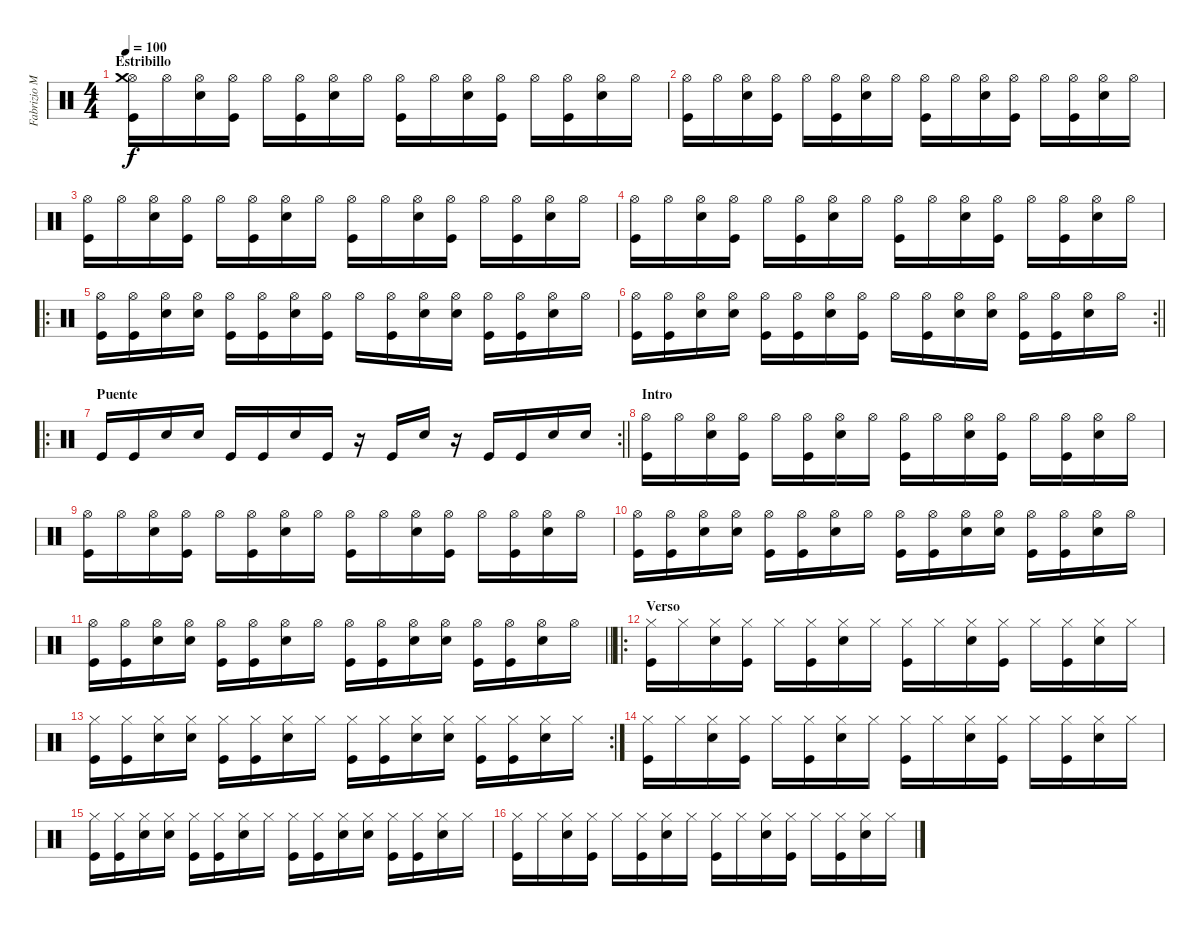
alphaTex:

\track ("Fabrizio Moretti" "Fabrizio M") {instrument percussion}
\staff {score}
\articulation defaults
\ts (4 4)
\section ("" "Estribillo")
\tempo 100
\clef neutral
\ks c
("Hi-Hat (open)" "Crash medium (hit)" "Kick (hit)").16{dy f} "Hi-Hat (open)".16 ("Hi-Hat (open)" "Snare (hit) 2").16 ("Hi-Hat (open)" "Kick (hit)").16 "Hi-Hat (open)".16 ("Hi-Hat (open)" "Kick (hit)").16 ("Hi-Hat (open)" "Snare (hit) 2").16 "Hi-Hat (open)".16 ("Hi-Hat (open)" "Kick (hit)").16 "Hi-Hat (open)".16 ("Hi-Hat (open)" "Snare (hit) 2").16 ("Hi-Hat (open)" "Kick (hit)").16 "Hi-Hat (open)".16 ("Hi-Hat (open)" "Kick (hit)").16 ("Hi-Hat (open)" "Snare (hit) 2").16 "Hi-Hat (open)".16 |
("Hi-Hat (open)" "Kick (hit)").16 "Hi-Hat (open)".16 ("Hi-Hat (open)" "Snare (hit) 2").16 ("Hi-Hat (open)" "Kick (hit)").16 "Hi-Hat (open)".16 ("Hi-Hat (open)" "Kick (hit)").16 ("Hi-Hat (open)" "Snare (hit) 2").16 "Hi-Hat (open)".16 ("Hi-Hat (open)" "Kick (hit)").16 "Hi-Hat (open)".16 ("Hi-Hat (open)" "Snare (hit) 2").16 ("Hi-Hat (open)" "Kick (hit)").16 "Hi-Hat (open)".16 ("Hi-Hat (open)" "Kick (hit)").16 ("Hi-Hat (open)" "Snare (hit) 2").16 "Hi-Hat (open)".16 |
("Hi-Hat (open)" "Kick (hit)").16 "Hi-Hat (open)".16 ("Hi-Hat (open)" "Snare (hit) 2").16 ("Hi-Hat (open)" "Kick (hit)").16 "Hi-Hat (open)".16 ("Hi-Hat (open)" "Kick (hit)").16 ("Hi-Hat (open)" "Snare (hit) 2").16 "Hi-Hat (open)".16 ("Hi-Hat (open)" "Kick (hit)").16 "Hi-Hat (open)".16 ("Hi-Hat (open)" "Snare (hit) 2").16 ("Hi-Hat (open)" "Kick (hit)").16 "Hi-Hat (open)".16 ("Hi-Hat (open)" "Kick (hit)").16 ("Hi-Hat (open)" "Snare (hit) 2").16 "Hi-Hat (open)".16 |
("Hi-Hat (open)" "Kick (hit)").16 "Hi-Hat (open)".16 ("Hi-Hat (open)" "Snare (hit) 2").16 ("Hi-Hat (open)" "Kick (hit)").16 "Hi-Hat (open)".16 ("Hi-Hat (open)" "Kick (hit)").16 ("Hi-Hat (open)" "Snare (hit) 2").16 "Hi-Hat (open)".16 ("Hi-Hat (open)" "Kick (hit)").16 "Hi-Hat (open)".16 ("Hi-Hat (open)" "Snare (hit) 2").16 ("Hi-Hat (open)" "Kick (hit)").16 "Hi-Hat (open)".16 ("Hi-Hat (open)" "Kick (hit)").16 ("Hi-Hat (open)" "Snare (hit) 2").16 "Hi-Hat (open)".16 |
\ro
("Hi-Hat (open)" "Kick (hit)").16 ("Hi-Hat (open)" "Kick (hit)").16 ("Hi-Hat (open)" "Snare (hit) 2").16 ("Hi-Hat (open)" "Snare (hit) 2").16 ("Hi-Hat (open)" "Kick (hit)").16 ("Hi-Hat (open)" "Kick (hit)").16 ("Hi-Hat (open)" "Snare (hit) 2").16 ("Hi-Hat (open)" "Kick (hit)").16 "Hi-Hat (open)".16 ("Hi-Hat (open)" "Kick (hit)").16 ("Hi-Hat (open)" "Snare (hit) 2").16 ("Hi-Hat (open)" "Snare (hit) 2").16 ("Hi-Hat (open)" "Kick (hit)").16 ("Hi-Hat (open)" "Kick (hit)").16 ("Hi-Hat (open)" "Snare (hit) 2").16 "Hi-Hat (open)".16 |
\rc 2
\barLineRight lightlight
("Hi-Hat (open)" "Kick (hit)").16 ("Hi-Hat (open)" "Kick (hit)").16 ("Hi-Hat (open)" "Snare (hit) 2").16 ("Hi-Hat (open)" "Snare (hit) 2").16 ("Hi-Hat (open)" "Kick (hit)").16 ("Hi-Hat (open)" "Kick (hit)").16 ("Hi-Hat (open)" "Snare (hit) 2").16 ("Hi-Hat (open)" "Kick (hit)").16 "Hi-Hat (open)".16 ("Hi-Hat (open)" "Kick (hit)").16 ("Hi-Hat (open)" "Snare (hit) 2").16 ("Hi-Hat (open)" "Snare (hit) 2").16 ("Hi-Hat (open)" "Kick (hit)").16 ("Hi-Hat (open)" "Kick (hit)").16 ("Hi-Hat (open)" "Snare (hit) 2").16 "Hi-Hat (open)".16 |
\ro
\rc 2
\section ("" "Puente")
\barLineRight lightlight "Kick (hit)".16 "Kick (hit)".16 "Snare (hit) 2".16 "Snare (hit) 2".16 "Kick (hit)".16 "Kick (hit)".16 "Snare (hit) 2".16 "Kick (hit)".16
r.16 "Kick (hit)".16 "Snare (hit) 2".16 r.16 "Kick (hit)".16 "Kick (hit)".16 "Snare (hit) 2".16 "Snare (hit) 2".16 |
\section ("" "Intro")
("Hi-Hat (open)" "Kick (hit)").16 "Hi-Hat (open)".16 ("Hi-Hat (open)" "Snare (hit) 2").16 ("Hi-Hat (open)" "Kick (hit)").16 "Hi-Hat (open)".16 ("Hi-Hat (open)" "Kick (hit)").16 ("Hi-Hat (open)" "Snare (hit) 2").16 "Hi-Hat (open)".16 ("Hi-Hat (open)" "Kick (hit)").16 "Hi-Hat (open)".16 ("Hi-Hat (open)" "Snare (hit) 2").16 ("Hi-Hat (open)" "Kick (hit)").16 "Hi-Hat (open)".16 ("Hi-Hat (open)" "Kick (hit)").16 ("Hi-Hat (open)" "Snare (hit) 2").16 "Hi-Hat (open)".16 |
("Hi-Hat (open)" "Kick (hit)").16 "Hi-Hat (open)".16 ("Hi-Hat (open)" "Snare (hit) 2").16 ("Hi-Hat (open)" "Kick (hit)").16 "Hi-Hat (open)".16 ("Hi-Hat (open)" "Kick (hit)").16 ("Hi-Hat (open)" "Snare (hit) 2").16 "Hi-Hat (open)".16 ("Hi-Hat (open)" "Kick (hit)").16 "Hi-Hat (open)".16 ("Hi-Hat (open)" "Snare (hit) 2").16 ("Hi-Hat (open)" "Kick (hit)").16 "Hi-Hat (open)".16 ("Hi-Hat (open)" "Kick (hit)").16 ("Hi-Hat (open)" "Snare (hit) 2").16 "Hi-Hat (open)".16 |
("Hi-Hat (open)" "Kick (hit)").16 ("Hi-Hat (open)" "Kick (hit)").16 ("Hi-Hat (open)" "Snare (hit) 2").16 ("Hi-Hat (open)" "Snare (hit) 2").16 ("Hi-Hat (open)" "Kick (hit)").16 ("Hi-Hat (open)" "Kick (hit)").16 ("Hi-Hat (open)" "Snare (hit) 2").16 "Hi-Hat (open)".16 ("Hi-Hat (open)" "Kick (hit)").16 ("Hi-Hat (open)" "Kick (hit)").16 ("Hi-Hat (open)" "Snare (hit) 2").16 ("Hi-Hat (open)" "Snare (hit) 2").16 ("Hi-Hat (open)" "Kick (hit)").16 ("Hi-Hat (open)" "Kick (hit)").16 ("Hi-Hat (open)" "Snare (hit) 2").16 "Hi-Hat (open)".16 |
\barLineRight lightlight
("Hi-Hat (open)" "Kick (hit)").16 ("Hi-Hat (open)" "Kick (hit)").16 ("Hi-Hat (open)" "Snare (hit) 2").16 ("Hi-Hat (open)" "Snare (hit) 2").16 ("Hi-Hat (open)" "Kick (hit)").16 ("Hi-Hat (open)" "Kick (hit)").16 ("Hi-Hat (open)" "Snare (hit) 2").16 "Hi-Hat (open)".16 ("Hi-Hat (open)" "Kick (hit)").16 ("Hi-Hat (open)" "Kick (hit)").16 ("Hi-Hat (open)" "Snare (hit) 2").16 ("Hi-Hat (open)" "Snare (hit) 2").16 ("Hi-Hat (open)" "Kick (hit)").16 ("Hi-Hat (open)" "Kick (hit)").16 ("Hi-Hat (open)" "Snare (hit) 2").16 "Hi-Hat (open)".16 |
\ro
\section ("" "Verso")
("Hi-Hat (closed)" "Kick (hit)").16 "Hi-Hat (closed)".16 ("Hi-Hat (closed)" "Snare (hit) 2").16 ("Hi-Hat (closed)" "Kick (hit)").16 "Hi-Hat (closed)".16 ("Hi-Hat (closed)" "Kick (hit)").16 ("Hi-Hat (closed)" "Snare (hit) 2").16 "Hi-Hat (closed)".16 ("Hi-Hat (closed)" "Kick (hit)").16 "Hi-Hat (closed)".16 ("Hi-Hat (closed)" "Snare (hit) 2").16 ("Hi-Hat (closed)" "Kick (hit)").16 "Hi-Hat (closed)".16 ("Hi-Hat (closed)" "Kick (hit)").16 ("Hi-Hat (closed)" "Snare (hit) 2").16 "Hi-Hat (closed)".16 |
\rc 2
("Hi-Hat (closed)" "Kick (hit)").16 ("Hi-Hat (closed)" "Kick (hit)").16 ("Hi-Hat (closed)" "Snare (hit) 2").16 ("Hi-Hat (closed)" "Snare (hit) 2").16 ("Hi-Hat (closed)" "Kick (hit)").16 ("Hi-Hat (closed)" "Kick (hit)").16 ("Hi-Hat (closed)" "Snare (hit) 2").16 "Hi-Hat (closed)".16 ("Hi-Hat (closed)" "Kick (hit)").16 ("Hi-Hat (closed)" "Kick (hit)").16 ("Hi-Hat (closed)" "Snare (hit) 2").16 ("Hi-Hat (closed)" "Snare (hit) 2").16 ("Hi-Hat (closed)" "Kick (hit)").16 ("Hi-Hat (closed)" "Kick (hit)").16 ("Hi-Hat (closed)" "Snare (hit) 2").16 "Hi-Hat (closed)".16 |
("Hi-Hat (closed)" "Kick (hit)").16 "Hi-Hat (closed)".16 ("Hi-Hat (closed)" "Snare (hit) 2").16 ("Hi-Hat (closed)" "Kick (hit)").16 "Hi-Hat (closed)".16 ("Hi-Hat (closed)" "Kick (hit)").16 ("Hi-Hat (closed)" "Snare (hit) 2").16 "Hi-Hat (closed)".16 ("Hi-Hat (closed)" "Kick (hit)").16 "Hi-Hat (closed)".16 ("Hi-Hat (closed)" "Snare (hit) 2").16 ("Hi-Hat (closed)" "Kick (hit)").16 "Hi-Hat (closed)".16 ("Hi-Hat (closed)" "Kick (hit)").16 ("Hi-Hat (closed)" "Snare (hit) 2").16 "Hi-Hat (closed)".16 |
("Hi-Hat (closed)" "Kick (hit)").16 ("Hi-Hat (closed)" "Kick (hit)").16 ("Hi-Hat (closed)" "Snare (hit) 2").16 ("Hi-Hat (closed)" "Snare (hit) 2").16 ("Hi-Hat (closed)" "Kick (hit)").16 ("Hi-Hat (closed)" "Kick (hit)").16 ("Hi-Hat (closed)" "Snare (hit) 2").16 "Hi-Hat (closed)".16 ("Hi-Hat (closed)" "Kick (hit)").16 ("Hi-Hat (closed)" "Kick (hit)").16 ("Hi-Hat (closed)" "Snare (hit) 2").16 ("Hi-Hat (closed)" "Snare (hit) 2").16 ("Hi-Hat (closed)" "Kick (hit)").16 ("Hi-Hat (closed)" "Kick (hit)").16 ("Hi-Hat (closed)" "Snare (hit) 2").16 "Hi-Hat (closed)".16 |
("Hi-Hat (closed)" "Kick (hit)").16 "Hi-Hat (closed)".16 ("Hi-Hat (closed)" "Snare (hit) 2").16 ("Hi-Hat (closed)" "Kick (hit)").16 "Hi-Hat (closed)".16 ("Hi-Hat (closed)" "Kick (hit)").16 ("Hi-Hat (closed)" "Snare (hit) 2").16 "Hi-Hat (closed)".16 ("Hi-Hat (closed)" "Kick (hit)").16 "Hi-Hat (closed)".16 ("Hi-Hat (closed)" "Snare (hit) 2").16 ("Hi-Hat (closed)" "Kick (hit)").16 "Hi-Hat (closed)".16 ("Hi-Hat (closed)" "Kick (hit)").16 ("Hi-Hat (closed)" "Snare (hit) 2").16 "Hi-Hat (closed)".16
